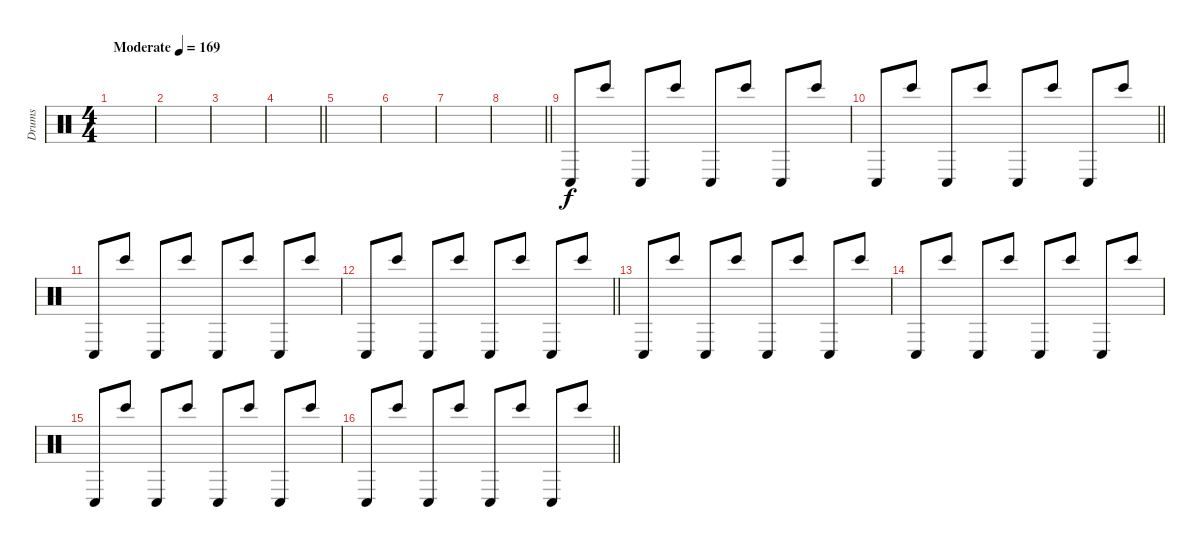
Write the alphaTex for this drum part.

\track ("Drums" "Drums") {instrument percussion}
\staff
\articulation defaults
\ts (4 4)
\tempo (169 "Moderate")
\clef neutral
\ks c
|
|
|
\barLineRight lightlight
|
|
|
|
\barLineRight lightlight
|
\section ("" "")
"Conga low (hit)".8 "Bongo High (hit)".8 "Conga low (hit)".8 "Bongo High (hit)".8 "Conga low (hit)".8 "Bongo High (hit)".8 "Conga low (hit)".8 "Bongo High (hit)".8 |
\barLineRight lightlight "Conga low (hit)".8 "Bongo High (hit)".8 "Conga low (hit)".8 "Bongo High (hit)".8 "Conga low (hit)".8 "Bongo High (hit)".8 "Conga low (hit)".8 "Bongo High (hit)".8
|
"Conga low (hit)".8 "Bongo High (hit)".8 "Conga low (hit)".8 "Bongo High (hit)".8 "Conga low (hit)".8 "Bongo High (hit)".8 "Conga low (hit)".8 "Bongo High (hit)".8 |
\barLineRight lightlight "Conga low (hit)".8 "Bongo High (hit)".8 "Conga low (hit)".8 "Bongo High (hit)".8 "Conga low (hit)".8 "Bongo High (hit)".8 "Conga low (hit)".8 "Bongo High (hit)".8
|
"Conga low (hit)".8 "Bongo High (hit)".8 "Conga low (hit)".8 "Bongo High (hit)".8 "Conga low (hit)".8 "Bongo High (hit)".8 "Conga low (hit)".8 "Bongo High (hit)".8 |
"Conga low (hit)".8 "Bongo High (hit)".8 "Conga low (hit)".8 "Bongo High (hit)".8 "Conga low (hit)".8 "Bongo High (hit)".8 "Conga low (hit)".8 "Bongo High (hit)".8 |
"Conga low (hit)".8 "Bongo High (hit)".8 "Conga low (hit)".8 "Bongo High (hit)".8 "Conga low (hit)".8 "Bongo High (hit)".8 "Conga low (hit)".8 "Bongo High (hit)".8 |
\barLineRight lightlight "Conga low (hit)".8 "Bongo High (hit)".8 "Conga low (hit)".8 "Bongo High (hit)".8 "Conga low (hit)".8 "Bongo High (hit)".8 "Conga low (hit)".8 "Bongo High (hit)".8
